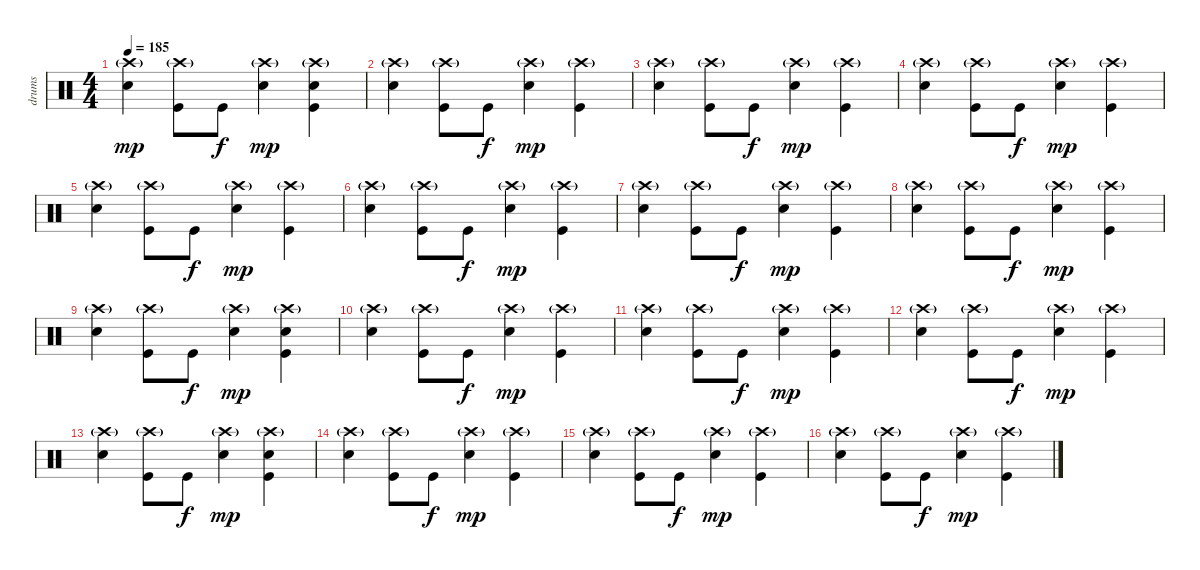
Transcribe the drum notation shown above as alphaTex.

\track ("drums" "drums") {instrument percussion}
\staff {score}
\articulation defaults
\ts (4 4)
\tempo 185
\clef neutral
\ks c
("Crash high (hit)"{g} "Electric Snare (hit)").4{dy mp} ("Crash high (hit)"{g} "Kick (hit)").8 "Kick (hit)".8{dy f} ("Crash high (hit)"{g} "Electric Snare (hit)").4{dy mp} ("Crash high (hit)"{g} "Electric Snare (hit)" "Kick (hit)").4 |
("Crash high (hit)"{g} "Electric Snare (hit)").4 ("Crash high (hit)"{g} "Kick (hit)").8 "Kick (hit)".8{dy f} ("Crash high (hit)"{g} "Electric Snare (hit)").4{dy mp} ("Crash high (hit)"{g} "Kick (hit)").4 |
("Crash high (hit)"{g} "Electric Snare (hit)").4 ("Crash high (hit)"{g} "Kick (hit)").8 "Kick (hit)".8{dy f} ("Crash high (hit)"{g} "Electric Snare (hit)").4{dy mp} ("Crash high (hit)"{g} "Kick (hit)").4 |
("Crash high (hit)"{g} "Electric Snare (hit)").4 ("Crash high (hit)"{g} "Kick (hit)").8 "Kick (hit)".8{dy f} ("Crash high (hit)"{g} "Electric Snare (hit)").4{dy mp} ("Crash high (hit)"{g} "Kick (hit)").4 |
("Crash high (hit)"{g} "Electric Snare (hit)").4 ("Crash high (hit)"{g} "Kick (hit)").8 "Kick (hit)".8{dy f} ("Crash high (hit)"{g} "Electric Snare (hit)").4{dy mp} ("Crash high (hit)"{g} "Kick (hit)").4 |
("Crash high (hit)"{g} "Electric Snare (hit)").4 ("Crash high (hit)"{g} "Kick (hit)").8 "Kick (hit)".8{dy f} ("Crash high (hit)"{g} "Electric Snare (hit)").4{dy mp} ("Crash high (hit)"{g} "Kick (hit)").4 |
("Crash high (hit)"{g} "Electric Snare (hit)").4 ("Crash high (hit)"{g} "Kick (hit)").8 "Kick (hit)".8{dy f} ("Crash high (hit)"{g} "Electric Snare (hit)").4{dy mp} ("Crash high (hit)"{g} "Kick (hit)").4 |
("Crash high (hit)"{g} "Electric Snare (hit)").4 ("Crash high (hit)"{g} "Kick (hit)").8 "Kick (hit)".8{dy f} ("Crash high (hit)"{g} "Electric Snare (hit)").4{dy mp} ("Crash high (hit)"{g} "Kick (hit)").4 |
("Crash high (hit)"{g} "Electric Snare (hit)").4 ("Crash high (hit)"{g} "Kick (hit)").8 "Kick (hit)".8{dy f} ("Crash high (hit)"{g} "Electric Snare (hit)").4{dy mp} ("Crash high (hit)"{g} "Electric Snare (hit)" "Kick (hit)").4 |
("Crash high (hit)"{g} "Electric Snare (hit)").4 ("Crash high (hit)"{g} "Kick (hit)").8 "Kick (hit)".8{dy f} ("Crash high (hit)"{g} "Electric Snare (hit)").4{dy mp} ("Crash high (hit)"{g} "Kick (hit)").4 |
("Crash high (hit)"{g} "Electric Snare (hit)").4 ("Crash high (hit)"{g} "Kick (hit)").8 "Kick (hit)".8{dy f} ("Crash high (hit)"{g} "Electric Snare (hit)").4{dy mp} ("Crash high (hit)"{g} "Kick (hit)").4 |
("Crash high (hit)"{g} "Electric Snare (hit)").4 ("Crash high (hit)"{g} "Kick (hit)").8 "Kick (hit)".8{dy f} ("Crash high (hit)"{g} "Electric Snare (hit)").4{dy mp} ("Crash high (hit)"{g} "Kick (hit)").4 |
("Crash high (hit)"{g} "Electric Snare (hit)").4 ("Crash high (hit)"{g} "Kick (hit)").8 "Kick (hit)".8{dy f} ("Crash high (hit)"{g} "Electric Snare (hit)").4{dy mp} ("Crash high (hit)"{g} "Electric Snare (hit)" "Kick (hit)").4 |
("Crash high (hit)"{g} "Electric Snare (hit)").4 ("Crash high (hit)"{g} "Kick (hit)").8 "Kick (hit)".8{dy f} ("Crash high (hit)"{g} "Electric Snare (hit)").4{dy mp} ("Crash high (hit)"{g} "Kick (hit)").4 |
("Crash high (hit)"{g} "Electric Snare (hit)").4 ("Crash high (hit)"{g} "Kick (hit)").8 "Kick (hit)".8{dy f} ("Crash high (hit)"{g} "Electric Snare (hit)").4{dy mp} ("Crash high (hit)"{g} "Kick (hit)").4 |
("Crash high (hit)"{g} "Electric Snare (hit)").4 ("Crash high (hit)"{g} "Kick (hit)").8 "Kick (hit)".8{dy f} ("Crash high (hit)"{g} "Electric Snare (hit)").4{dy mp} ("Crash high (hit)"{g} "Kick (hit)").4
